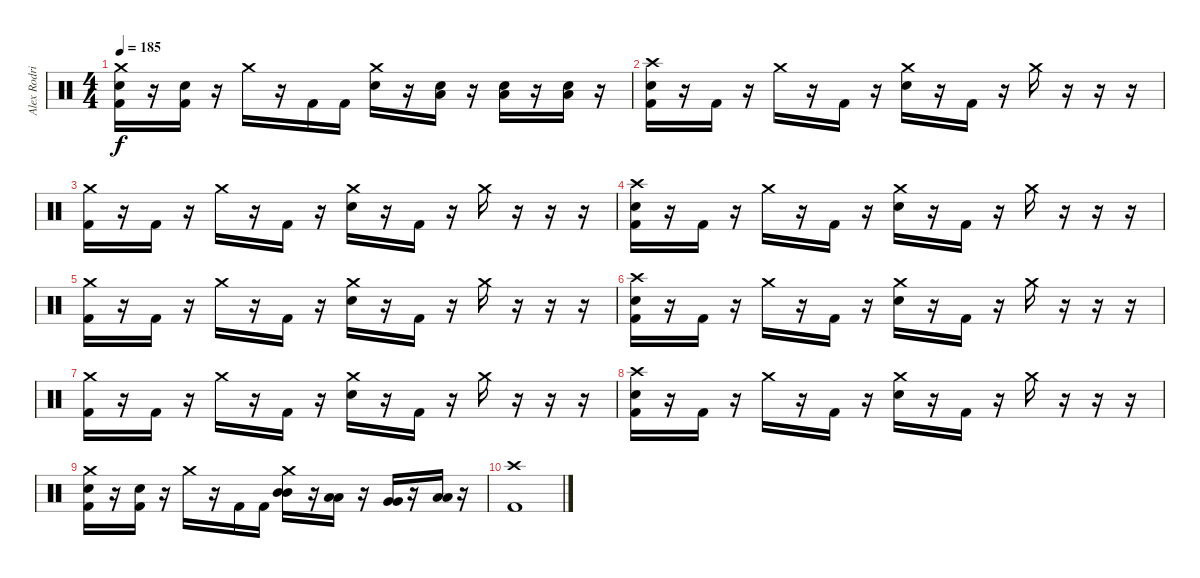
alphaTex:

\track ("Alex Rodriguez" "Alex Rodri") {instrument percussion}
\staff {score}
\articulation defaults
\ts (4 4)
\tempo 185
\clef neutral
\ks c
("Crash medium (hit)" "Electric Snare (hit)" "Kick (hit) 2").16{dy f} r.16 ("Electric Snare (hit)" "Kick (hit) 2").16 r.16 "Crash medium (hit)".16 r.16 "Kick (hit) 2".16 "Kick (hit) 2".16 ("Crash medium (hit)" "Electric Snare (hit)").16 r.16 ("Electric Snare (hit)" "Low Floor Tom (hit)").16 r.16 ("Electric Snare (hit)" "Low Floor Tom (hit)").16 r.16 ("Electric Snare (hit)" "Low Floor Tom (hit)").16 r.16 |
("Crash high (hit)" "Electric Snare (hit)" "Kick (hit) 2").16 r.16 "Kick (hit) 2".16 r.16 "Crash medium (hit)".16 r.16 "Kick (hit) 2".16 r.16 ("Crash medium (hit)" "Electric Snare (hit)").16 r.16 "Kick (hit) 2".16 r.16 "Crash medium (hit)".16 r.16 r.16 r.16 |
("Crash medium (hit)" "Kick (hit) 2").16 r.16 "Kick (hit) 2".16 r.16 "Crash medium (hit)".16 r.16 "Kick (hit) 2".16 r.16 ("Crash medium (hit)" "Electric Snare (hit)").16 r.16 "Kick (hit) 2".16 r.16 "Crash medium (hit)".16 r.16 r.16 r.16 |
("Crash high (hit)" "Electric Snare (hit)" "Kick (hit) 2").16 r.16 "Kick (hit) 2".16 r.16 "Crash medium (hit)".16 r.16 "Kick (hit) 2".16 r.16 ("Crash medium (hit)" "Electric Snare (hit)").16 r.16 "Kick (hit) 2".16 r.16 "Crash medium (hit)".16 r.16 r.16 r.16 |
("Crash medium (hit)" "Kick (hit) 2").16 r.16 "Kick (hit) 2".16 r.16 "Crash medium (hit)".16 r.16 "Kick (hit) 2".16 r.16 ("Crash medium (hit)" "Electric Snare (hit)").16 r.16 "Kick (hit) 2".16 r.16 "Crash medium (hit)".16 r.16 r.16 r.16 |
("Crash high (hit)" "Electric Snare (hit)" "Kick (hit) 2").16 r.16 "Kick (hit) 2".16 r.16 "Crash medium (hit)".16 r.16 "Kick (hit) 2".16 r.16 ("Crash medium (hit)" "Electric Snare (hit)").16 r.16 "Kick (hit) 2".16 r.16 "Crash medium (hit)".16 r.16 r.16 r.16 |
("Crash medium (hit)" "Kick (hit) 2").16 r.16 "Kick (hit) 2".16 r.16 "Crash medium (hit)".16 r.16 "Kick (hit) 2".16 r.16 ("Crash medium (hit)" "Electric Snare (hit)").16 r.16 "Kick (hit) 2".16 r.16 "Crash medium (hit)".16 r.16 r.16 r.16 |
("Crash high (hit)" "Electric Snare (hit)" "Kick (hit) 2").16 r.16 "Kick (hit) 2".16 r.16 "Crash medium (hit)".16 r.16 "Kick (hit) 2".16 r.16 ("Crash medium (hit)" "Electric Snare (hit)").16 r.16 "Kick (hit) 2".16 r.16 "Crash medium (hit)".16 r.16 r.16 r.16 |
("Crash medium (hit)" "Electric Snare (hit)" "Kick (hit) 2").16 r.16 ("Electric Snare (hit)" "Kick (hit) 2").16 r.16 "Crash medium (hit)".16 r.16 "Kick (hit) 2".16 "Kick (hit) 2".16 ("Crash medium (hit)" "Mid Tom (hit)" "Mid Tom (hit)").16 r.16 ("Low Tom (hit)" "Low Tom (hit)").16 r.16 ("Very Low Tom (hit)" "Very Low Tom (hit)").16 r.16 ("Low Floor Tom (hit)" "Low Floor Tom (hit)").16 r.16 |
("Crash high (hit)" "Kick (hit) 2").1
